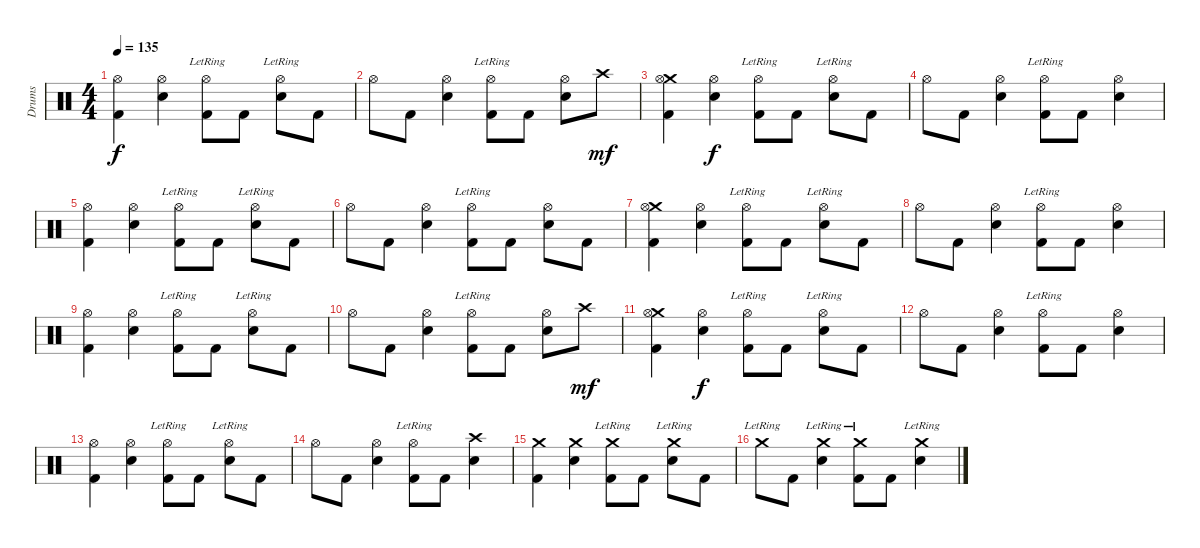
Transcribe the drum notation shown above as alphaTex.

\track ("Drums" "Drums") {instrument percussion}
\staff {score}
\articulation defaults
\ts (4 4)
\tempo 135
\clef neutral
\ks c
("Hi-Hat (open)" "Kick (hit) 2").4{dy f} ("Hi-Hat (open)" "Electric Snare (hit)").4 ("Hi-Hat (open)"{lr} "Kick (hit) 2").8 "Kick (hit) 2".8 ("Hi-Hat (open)"{lr} "Electric Snare (hit)").8 "Kick (hit) 2".8 |
"Hi-Hat (open)".8 "Kick (hit) 2".8 ("Hi-Hat (open)" "Electric Snare (hit)").4 ("Hi-Hat (open)"{lr} "Kick (hit) 2").8 "Kick (hit) 2".8 ("Hi-Hat (open)" "Electric Snare (hit)").8 "Crash high (hit)".8{dy mf} |
("Crash medium (hit)" "Hi-Hat (open)" "Kick (hit) 2").4 ("Hi-Hat (open)" "Electric Snare (hit)").4{dy f} ("Hi-Hat (open)"{lr} "Kick (hit) 2").8 "Kick (hit) 2".8 ("Hi-Hat (open)"{lr} "Electric Snare (hit)").8 "Kick (hit) 2".8 |
"Hi-Hat (open)".8 "Kick (hit) 2".8 ("Hi-Hat (open)" "Electric Snare (hit)").4 ("Hi-Hat (open)"{lr} "Kick (hit) 2").8 "Kick (hit) 2".8 ("Hi-Hat (open)" "Electric Snare (hit)").4 |
("Hi-Hat (open)" "Kick (hit) 2").4 ("Hi-Hat (open)" "Electric Snare (hit)").4 ("Hi-Hat (open)"{lr} "Kick (hit) 2").8 "Kick (hit) 2".8 ("Hi-Hat (open)"{lr} "Electric Snare (hit)").8 "Kick (hit) 2".8 |
"Hi-Hat (open)".8 "Kick (hit) 2".8 ("Hi-Hat (open)" "Electric Snare (hit)").4 ("Hi-Hat (open)"{lr} "Kick (hit) 2").8 "Kick (hit) 2".8 ("Hi-Hat (open)" "Electric Snare (hit)").8 "Kick (hit) 2".8 |
("Crash medium (hit)" "Hi-Hat (open)" "Kick (hit) 2").4 ("Hi-Hat (open)" "Electric Snare (hit)").4 ("Hi-Hat (open)"{lr} "Kick (hit) 2").8 "Kick (hit) 2".8 ("Hi-Hat (open)"{lr} "Electric Snare (hit)").8 "Kick (hit) 2".8 |
"Hi-Hat (open)".8 "Kick (hit) 2".8 ("Hi-Hat (open)" "Electric Snare (hit)").4 ("Hi-Hat (open)"{lr} "Kick (hit) 2").8 "Kick (hit) 2".8 ("Hi-Hat (open)" "Electric Snare (hit)").4 |
("Hi-Hat (open)" "Kick (hit) 2").4 ("Hi-Hat (open)" "Electric Snare (hit)").4 ("Hi-Hat (open)"{lr} "Kick (hit) 2").8 "Kick (hit) 2".8 ("Hi-Hat (open)"{lr} "Electric Snare (hit)").8 "Kick (hit) 2".8 |
"Hi-Hat (open)".8 "Kick (hit) 2".8 ("Hi-Hat (open)" "Electric Snare (hit)").4 ("Hi-Hat (open)"{lr} "Kick (hit) 2").8 "Kick (hit) 2".8 ("Hi-Hat (open)" "Electric Snare (hit)").8 "Crash high (hit)".8{dy mf} |
("Crash medium (hit)" "Hi-Hat (open)" "Kick (hit) 2").4 ("Hi-Hat (open)" "Electric Snare (hit)").4{dy f} ("Hi-Hat (open)"{lr} "Kick (hit) 2").8 "Kick (hit) 2".8 ("Hi-Hat (open)"{lr} "Electric Snare (hit)").8 "Kick (hit) 2".8 |
"Hi-Hat (open)".8 "Kick (hit) 2".8 ("Hi-Hat (open)" "Electric Snare (hit)").4 ("Hi-Hat (open)"{lr} "Kick (hit) 2").8 "Kick (hit) 2".8 ("Hi-Hat (open)" "Electric Snare (hit)").4 |
("Hi-Hat (open)" "Kick (hit) 2").4 ("Hi-Hat (open)" "Electric Snare (hit)").4 ("Hi-Hat (open)"{lr} "Kick (hit) 2").8 "Kick (hit) 2".8 ("Hi-Hat (open)"{lr} "Electric Snare (hit)").8 "Kick (hit) 2".8 |
"Hi-Hat (open)".8 "Kick (hit) 2".8 ("Hi-Hat (open)" "Electric Snare (hit)").4 ("Hi-Hat (open)"{lr} "Kick (hit) 2").8 "Kick (hit) 2".8 ("Crash high (hit)" "Electric Snare (hit)").4 |
("Crash medium (hit)" "Kick (hit) 2").4 ("Crash medium (hit)" "Electric Snare (hit)").4 ("Crash medium (hit)"{lr} "Kick (hit) 2").8 "Kick (hit) 2".8 ("Crash medium (hit)"{lr} "Electric Snare (hit)").8 "Kick (hit) 2".8 |
"Crash medium (hit)"{lr}.8 "Kick (hit) 2".8 ("Crash medium (hit)"{lr} "Electric Snare (hit)").4 ("Crash medium (hit)"{lr} "Kick (hit) 2").8 "Kick (hit) 2".8 ("Crash medium (hit)"{lr} "Electric Snare (hit)").4
